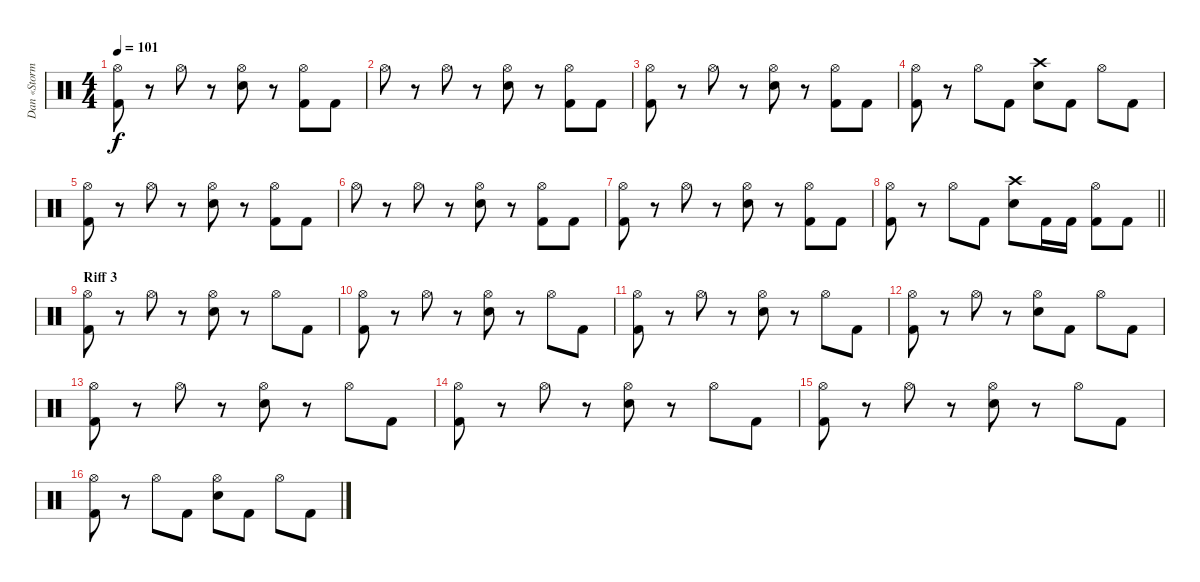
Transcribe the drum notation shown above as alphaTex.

\track ("Dan «Storm» Mullins" "Dan «Storm") {instrument percussion}
\staff {score}
\articulation defaults
\ts (4 4)
\tempo 101
\clef neutral
\ks c
("Hi-Hat (open)" "Kick (hit) 2").8{dy f} r.8 "Hi-Hat (open)".8 r.8 ("Hi-Hat (open)" "Electric Snare (hit)").8 r.8 ("Hi-Hat (open)" "Kick (hit) 2").8 "Kick (hit) 2".8 |
"Hi-Hat (open)".8 r.8 "Hi-Hat (open)".8 r.8 ("Hi-Hat (open)" "Electric Snare (hit)").8 r.8 ("Hi-Hat (open)" "Kick (hit) 2").8 "Kick (hit) 2".8 |
("Hi-Hat (open)" "Kick (hit) 2").8 r.8 "Hi-Hat (open)".8 r.8 ("Hi-Hat (open)" "Electric Snare (hit)").8 r.8 ("Hi-Hat (open)" "Kick (hit) 2").8 "Kick (hit) 2".8 |
("Hi-Hat (open)" "Kick (hit) 2").8 r.8 "Hi-Hat (open)".8 "Kick (hit) 2".8 ("Crash high (hit)" "Electric Snare (hit)").8 "Kick (hit) 2".8 "Hi-Hat (open)".8 "Kick (hit) 2".8 |
("Hi-Hat (open)" "Kick (hit) 2").8 r.8 "Hi-Hat (open)".8 r.8 ("Hi-Hat (open)" "Electric Snare (hit)").8 r.8 ("Hi-Hat (open)" "Kick (hit) 2").8 "Kick (hit) 2".8 |
"Hi-Hat (open)".8 r.8 "Hi-Hat (open)".8 r.8 ("Hi-Hat (open)" "Electric Snare (hit)").8 r.8 ("Hi-Hat (open)" "Kick (hit) 2").8 "Kick (hit) 2".8 |
("Hi-Hat (open)" "Kick (hit) 2").8 r.8 "Hi-Hat (open)".8 r.8 ("Hi-Hat (open)" "Electric Snare (hit)").8 r.8 ("Hi-Hat (open)" "Kick (hit) 2").8 "Kick (hit) 2".8 |
\barLineRight lightlight
("Hi-Hat (open)" "Kick (hit) 2").8 r.8 "Hi-Hat (open)".8 "Kick (hit) 2".8 ("Crash high (hit)" "Electric Snare (hit)").8 "Kick (hit) 2".16 "Kick (hit) 2".16 ("Hi-Hat (open)" "Kick (hit) 2").8 "Kick (hit) 2".8 |
\section ("" "Riff 3")
("Hi-Hat (open)" "Kick (hit) 2").8 r.8 "Hi-Hat (open)".8 r.8 ("Hi-Hat (open)" "Electric Snare (hit)").8 r.8 "Hi-Hat (open)".8 "Kick (hit) 2".8 |
("Hi-Hat (open)" "Kick (hit) 2").8 r.8 "Hi-Hat (open)".8 r.8 ("Hi-Hat (open)" "Electric Snare (hit)").8 r.8 "Hi-Hat (open)".8 "Kick (hit) 2".8 |
("Hi-Hat (open)" "Kick (hit) 2").8 r.8 "Hi-Hat (open)".8 r.8 ("Hi-Hat (open)" "Electric Snare (hit)").8 r.8 "Hi-Hat (open)".8 "Kick (hit) 2".8 |
("Hi-Hat (open)" "Kick (hit) 2").8 r.8 "Hi-Hat (open)".8 r.8 ("Hi-Hat (open)" "Electric Snare (hit)").8 "Kick (hit) 2".8 "Hi-Hat (open)".8 "Kick (hit) 2".8 |
("Hi-Hat (open)" "Kick (hit) 2").8 r.8 "Hi-Hat (open)".8 r.8 ("Hi-Hat (open)" "Electric Snare (hit)").8 r.8 "Hi-Hat (open)".8 "Kick (hit) 2".8 |
("Hi-Hat (open)" "Kick (hit) 2").8 r.8 "Hi-Hat (open)".8 r.8 ("Hi-Hat (open)" "Electric Snare (hit)").8 r.8 "Hi-Hat (open)".8 "Kick (hit) 2".8 |
("Hi-Hat (open)" "Kick (hit) 2").8 r.8 "Hi-Hat (open)".8 r.8 ("Hi-Hat (open)" "Electric Snare (hit)").8 r.8 "Hi-Hat (open)".8 "Kick (hit) 2".8 |
("Hi-Hat (open)" "Kick (hit) 2").8 r.8 "Hi-Hat (open)".8 "Kick (hit) 2".8 ("Hi-Hat (open)" "Electric Snare (hit)").8 "Kick (hit) 2".8 "Hi-Hat (open)".8 "Kick (hit) 2".8
